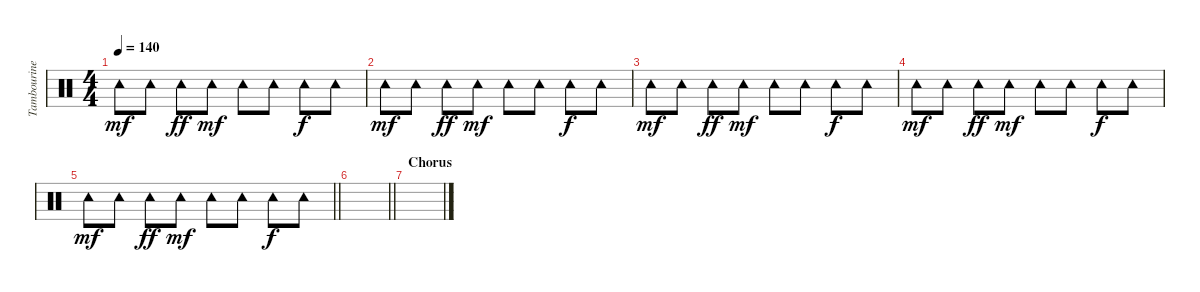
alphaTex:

\track ("Tambourine" "Tambourine") {instrument percussion}
\staff {score}
\articulation defaults
\ts (4 4)
\tempo 140
\clef neutral
\ks c "Tambourine (hit)".8{dy mf} "Tambourine (hit)".8 "Tambourine (hit)".8{dy ff} "Tambourine (hit)".8{dy mf} "Tambourine (hit)".8 "Tambourine (hit)".8 "Tambourine (hit)".8{dy f} "Tambourine (hit)".8
|
"Tambourine (hit)".8{dy mf} "Tambourine (hit)".8 "Tambourine (hit)".8{dy ff} "Tambourine (hit)".8{dy mf} "Tambourine (hit)".8 "Tambourine (hit)".8 "Tambourine (hit)".8{dy f} "Tambourine (hit)".8 |
"Tambourine (hit)".8{dy mf} "Tambourine (hit)".8 "Tambourine (hit)".8{dy ff} "Tambourine (hit)".8{dy mf} "Tambourine (hit)".8 "Tambourine (hit)".8 "Tambourine (hit)".8{dy f} "Tambourine (hit)".8 |
"Tambourine (hit)".8{dy mf} "Tambourine (hit)".8 "Tambourine (hit)".8{dy ff} "Tambourine (hit)".8{dy mf} "Tambourine (hit)".8 "Tambourine (hit)".8 "Tambourine (hit)".8{dy f} "Tambourine (hit)".8 |
\barLineRight lightlight "Tambourine (hit)".8{dy mf} "Tambourine (hit)".8 "Tambourine (hit)".8{dy ff} "Tambourine (hit)".8{dy mf} "Tambourine (hit)".8 "Tambourine (hit)".8 "Tambourine (hit)".8{dy f} "Tambourine (hit)".8
|
\barLineRight lightlight
|
\section ("" "Chorus")
